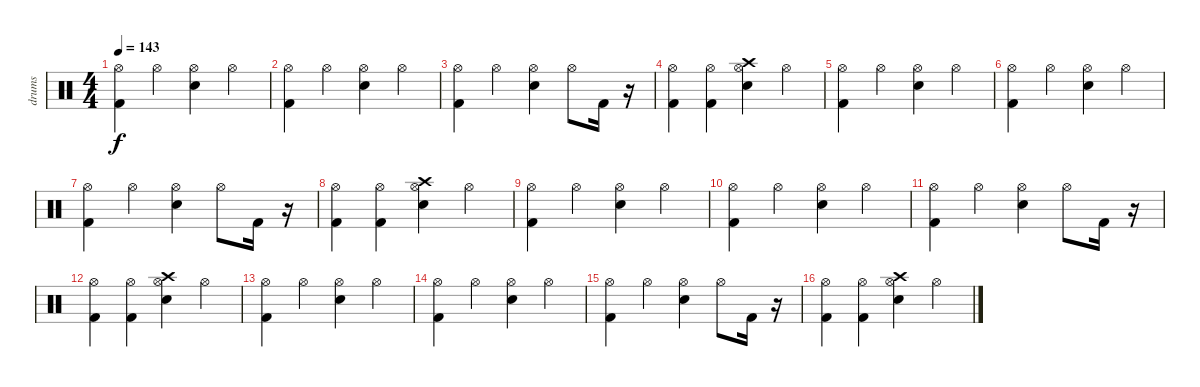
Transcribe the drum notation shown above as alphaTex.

\track ("drums" "drums") {instrument percussion}
\staff {score}
\articulation defaults
\ts (4 4)
\tempo 143
\clef neutral
\ks c
("Hi-Hat (open)" "Kick (hit) 2").4{dy f} "Hi-Hat (open)".4 ("Electric Snare (hit)" "Hi-Hat (open)").4 "Hi-Hat (open)".4 |
("Kick (hit) 2" "Hi-Hat (open)").4 "Hi-Hat (open)".4 ("Electric Snare (hit)" "Hi-Hat (open)").4 "Hi-Hat (open)".4 |
("Hi-Hat (open)" "Kick (hit) 2").4 "Hi-Hat (open)".4 ("Electric Snare (hit)" "Hi-Hat (open)").4 "Hi-Hat (open)".8 "Kick (hit) 2".16 r.16 |
("Kick (hit) 2" "Hi-Hat (open)").4 ("Kick (hit) 2" "Hi-Hat (open)").4 ("Crash high (hit)" "Electric Snare (hit)" "Hi-Hat (open)").4 "Hi-Hat (open)".4 |
("Hi-Hat (open)" "Kick (hit) 2").4 "Hi-Hat (open)".4 ("Electric Snare (hit)" "Hi-Hat (open)").4 "Hi-Hat (open)".4 |
("Kick (hit) 2" "Hi-Hat (open)").4 "Hi-Hat (open)".4 ("Electric Snare (hit)" "Hi-Hat (open)").4 "Hi-Hat (open)".4 |
("Hi-Hat (open)" "Kick (hit) 2").4 "Hi-Hat (open)".4 ("Electric Snare (hit)" "Hi-Hat (open)").4 "Hi-Hat (open)".8 "Kick (hit) 2".16 r.16 |
("Kick (hit) 2" "Hi-Hat (open)").4 ("Kick (hit) 2" "Hi-Hat (open)").4 ("Crash high (hit)" "Electric Snare (hit)" "Hi-Hat (open)").4 "Hi-Hat (open)".4 |
("Hi-Hat (open)" "Kick (hit) 2").4 "Hi-Hat (open)".4 ("Electric Snare (hit)" "Hi-Hat (open)").4 "Hi-Hat (open)".4 |
("Kick (hit) 2" "Hi-Hat (open)").4 "Hi-Hat (open)".4 ("Electric Snare (hit)" "Hi-Hat (open)").4 "Hi-Hat (open)".4 |
("Hi-Hat (open)" "Kick (hit) 2").4 "Hi-Hat (open)".4 ("Electric Snare (hit)" "Hi-Hat (open)").4 "Hi-Hat (open)".8 "Kick (hit) 2".16 r.16 |
("Kick (hit) 2" "Hi-Hat (open)").4 ("Kick (hit) 2" "Hi-Hat (open)").4 ("Crash high (hit)" "Electric Snare (hit)" "Hi-Hat (open)").4 "Hi-Hat (open)".4 |
("Hi-Hat (open)" "Kick (hit) 2").4 "Hi-Hat (open)".4 ("Electric Snare (hit)" "Hi-Hat (open)").4 "Hi-Hat (open)".4 |
("Kick (hit) 2" "Hi-Hat (open)").4 "Hi-Hat (open)".4 ("Electric Snare (hit)" "Hi-Hat (open)").4 "Hi-Hat (open)".4 |
("Hi-Hat (open)" "Kick (hit) 2").4 "Hi-Hat (open)".4 ("Electric Snare (hit)" "Hi-Hat (open)").4 "Hi-Hat (open)".8 "Kick (hit) 2".16 r.16 |
("Kick (hit) 2" "Hi-Hat (open)").4 ("Kick (hit) 2" "Hi-Hat (open)").4 ("Crash high (hit)" "Electric Snare (hit)" "Hi-Hat (open)").4 "Hi-Hat (open)".4
